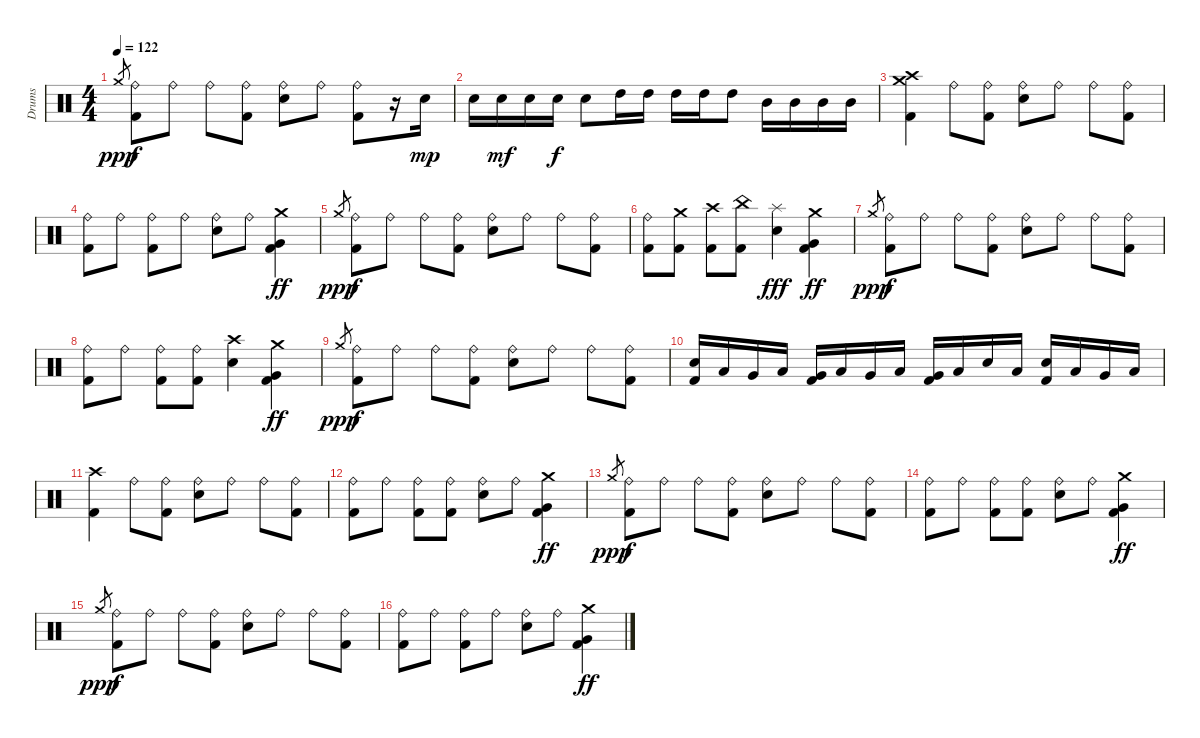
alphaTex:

\track ("Drums" "Drums") {instrument percussion}
\staff {score}
\articulation defaults
\ts (4 4)
\tempo 122
\clef neutral
\ks c "Crash medium (hit)".8{gr dy ppp}
("Ride (bell)" "Kick (hit) 2").8{dy f} "Ride (bell)".8 "Ride (bell)".8 ("Ride (bell)" "Kick (hit) 2").8 ("Ride (bell)" "Snare (hit) 2").8 "Ride (bell)".8 ("Ride (bell)" "Kick (hit) 2").8 r.16 "Snare (hit) 2".16{dy mp} |
"Snare (hit) 2".16 "Snare (hit) 2".16{dy mf} "Snare (hit) 2".16 "Snare (hit) 2".16{dy f} "Snare (hit) 2".8 "High Tom (hit)".16 "High Tom (hit)".16 "High Tom (hit)".16 "High Tom (hit)".16 "High Tom (hit)".8 "Mid Tom (hit)".16 "Mid Tom (hit)".16 "Mid Tom (hit)".16 "Mid Tom (hit)".16 |
("Crash high (hit)" "Crash medium (hit)" "Kick (hit) 2").4 "Ride (bell)".8 ("Ride (bell)" "Kick (hit) 2").8 ("Ride (bell)" "Snare (hit) 2").8 "Ride (bell)".8 "Ride (bell)".8 ("Ride (bell)" "Kick (hit) 2").8 |
("Ride (bell)" "Kick (hit) 2").8 "Ride (bell)".8 ("Ride (bell)" "Kick (hit) 2").8 "Ride (bell)".8 ("Ride (bell)" "Snare (hit) 2").8 "Ride (bell)".8 ("Crash medium (hit)" "Very Low Tom (hit)" "Kick (hit) 2").4{dy ff} |
"Crash medium (hit)".8{gr dy ppp} ("Ride (bell)" "Kick (hit) 2").8{dy f} "Ride (bell)".8 "Ride (bell)".8 ("Ride (bell)" "Kick (hit) 2").8 ("Ride (bell)" "Snare (hit) 2").8 "Ride (bell)".8 "Ride (bell)".8 ("Ride (bell)" "Kick (hit) 2").8 |
("Ride (bell)" "Kick (hit) 2").8 ("Crash medium (hit)" "Kick (hit) 2").8 ("Crash high (hit)" "Kick (hit) 2").8 ("China (hit)" "Kick (hit) 2").8 ("Splash (hit)" "Snare (hit) 2").4{dy fff} ("Crash medium (hit)" "Very Low Tom (hit)" "Kick (hit) 2").4{dy ff} |
"Crash medium (hit)".8{gr dy ppp} ("Ride (bell)" "Kick (hit) 2").8{dy f} "Ride (bell)".8 "Ride (bell)".8 ("Ride (bell)" "Kick (hit) 2").8 ("Ride (bell)" "Snare (hit) 2").8 "Ride (bell)".8 "Ride (bell)".8 ("Ride (bell)" "Kick (hit) 2").8 |
("Ride (bell)" "Kick (hit) 2").8 "Ride (bell)".8 ("Ride (bell)" "Kick (hit) 2").8 ("Ride (bell)" "Kick (hit) 2").8 ("Crash high (hit)" "Snare (hit) 2").4 ("Crash medium (hit)" "Very Low Tom (hit)" "Kick (hit) 2").4{dy ff} |
"Crash medium (hit)".8{gr dy ppp} ("Ride (bell)" "Kick (hit) 2").8{dy f} "Ride (bell)".8 "Ride (bell)".8 ("Ride (bell)" "Kick (hit) 2").8 ("Ride (bell)" "Snare (hit) 2").8 "Ride (bell)".8 "Ride (bell)".8 ("Ride (bell)" "Kick (hit) 2").8 |
("Snare (hit) 2" "Kick (hit) 2").16 "Low Tom (hit)".16 "Very Low Tom (hit)".16 "Low Tom (hit)".16 ("Very Low Tom (hit)" "Kick (hit) 2").16 "Low Tom (hit)".16 "Very Low Tom (hit)".16 "Low Tom (hit)".16 ("Very Low Tom (hit)" "Kick (hit) 2").16 "Low Tom (hit)".16 "Snare (hit) 2".16 "Low Tom (hit)".16 ("Snare (hit) 2" "Kick (hit) 2").16 "Low Tom (hit)".16 "Very Low Tom (hit)".16 "Low Tom (hit)".16 |
("Crash high (hit)" "Kick (hit) 2").4 "Ride (bell)".8 ("Ride (bell)" "Kick (hit) 2").8 ("Ride (bell)" "Snare (hit) 2").8 "Ride (bell)".8 "Ride (bell)".8 ("Ride (bell)" "Kick (hit) 2").8 |
("Ride (bell)" "Kick (hit) 2").8 "Ride (bell)".8 ("Ride (bell)" "Kick (hit) 2").8 ("Ride (bell)" "Kick (hit) 2").8 ("Ride (bell)" "Snare (hit) 2").8 "Ride (bell)".8 ("Crash medium (hit)" "Very Low Tom (hit)" "Kick (hit) 2").4{dy ff} |
"Crash medium (hit)".8{gr dy ppp} ("Ride (bell)" "Kick (hit) 2").8{dy f} "Ride (bell)".8 "Ride (bell)".8 ("Ride (bell)" "Kick (hit) 2").8 ("Ride (bell)" "Snare (hit) 2").8 "Ride (bell)".8 "Ride (bell)".8 ("Ride (bell)" "Kick (hit) 2").8 |
("Ride (bell)" "Kick (hit) 2").8 "Ride (bell)".8 ("Ride (bell)" "Kick (hit) 2").8 ("Ride (bell)" "Kick (hit) 2").8 ("Ride (bell)" "Snare (hit) 2").8 "Ride (bell)".8 ("Crash medium (hit)" "Very Low Tom (hit)" "Kick (hit) 2").4{dy ff} |
"Crash medium (hit)".8{gr dy ppp} ("Ride (bell)" "Kick (hit) 2").8{dy f} "Ride (bell)".8 "Ride (bell)".8 ("Ride (bell)" "Kick (hit) 2").8 ("Ride (bell)" "Snare (hit) 2").8 "Ride (bell)".8 "Ride (bell)".8 ("Ride (bell)" "Kick (hit) 2").8 |
("Ride (bell)" "Kick (hit) 2").8 "Ride (bell)".8 ("Ride (bell)" "Kick (hit) 2").8 "Ride (bell)".8 ("Ride (bell)" "Snare (hit) 2").8 "Ride (bell)".8 ("Crash medium (hit)" "Very Low Tom (hit)" "Kick (hit) 2").4{dy ff}
